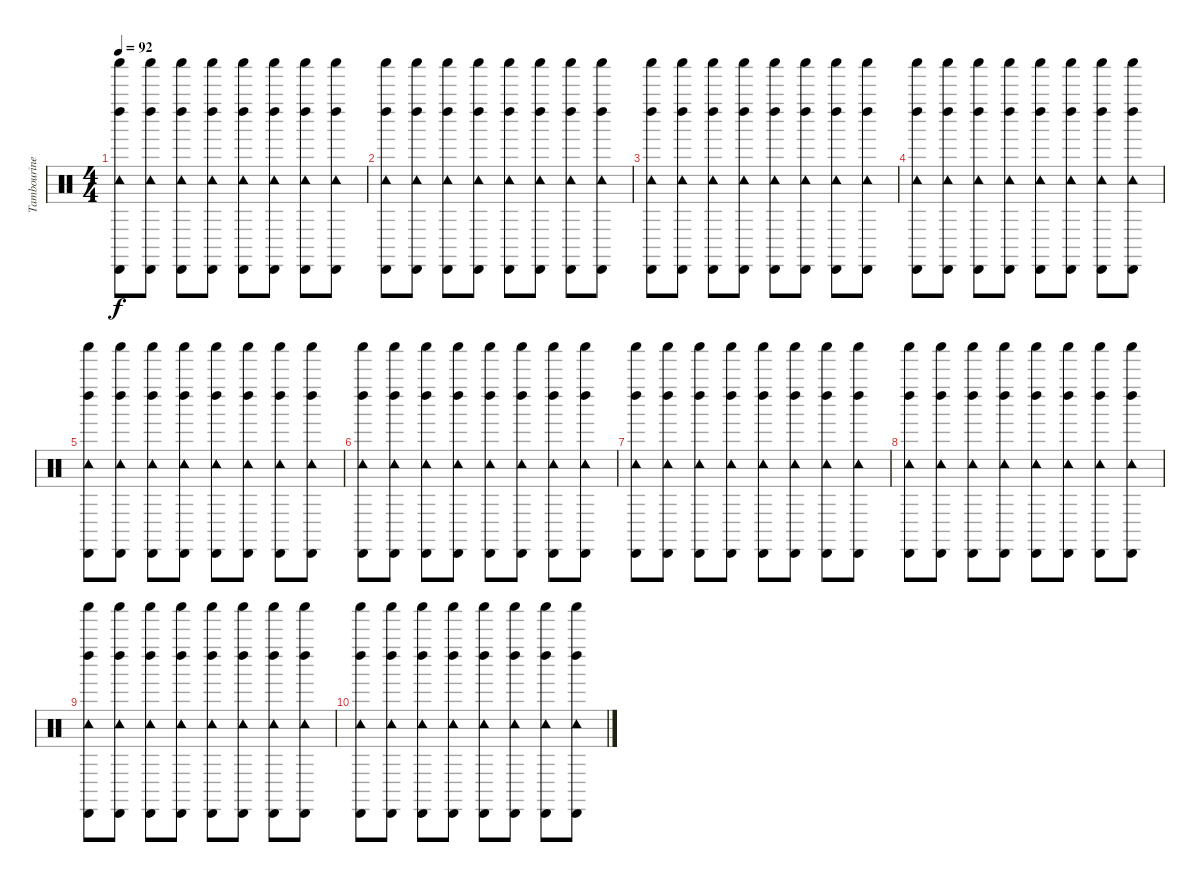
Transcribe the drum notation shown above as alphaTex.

\track ("Tambourine and Shaker" "Tambourine") {instrument percussion}
\staff {score}
\articulation defaults
\ts (4 4)
\tempo 92
\clef neutral
\ks c
("Shaker (hit)" "Left Maraca (hit)" "Cabasa (hit)" "Tambourine (hit)").8{dy f} ("Shaker (hit)" "Left Maraca (hit)" "Cabasa (hit)" "Tambourine (hit)").8 ("Shaker (hit)" "Left Maraca (hit)" "Cabasa (hit)" "Tambourine (hit)").8 ("Shaker (hit)" "Left Maraca (hit)" "Cabasa (hit)" "Tambourine (hit)").8 ("Shaker (hit)" "Left Maraca (hit)" "Cabasa (hit)" "Tambourine (hit)").8 ("Shaker (hit)" "Left Maraca (hit)" "Cabasa (hit)" "Tambourine (hit)").8 ("Shaker (hit)" "Left Maraca (hit)" "Cabasa (hit)" "Tambourine (hit)").8 ("Shaker (hit)" "Left Maraca (hit)" "Cabasa (hit)" "Tambourine (hit)").8 |
("Shaker (hit)" "Left Maraca (hit)" "Cabasa (hit)" "Tambourine (hit)").8 ("Shaker (hit)" "Left Maraca (hit)" "Cabasa (hit)" "Tambourine (hit)").8 ("Shaker (hit)" "Left Maraca (hit)" "Cabasa (hit)" "Tambourine (hit)").8 ("Shaker (hit)" "Left Maraca (hit)" "Cabasa (hit)" "Tambourine (hit)").8 ("Shaker (hit)" "Left Maraca (hit)" "Cabasa (hit)" "Tambourine (hit)").8 ("Shaker (hit)" "Left Maraca (hit)" "Cabasa (hit)" "Tambourine (hit)").8 ("Shaker (hit)" "Left Maraca (hit)" "Cabasa (hit)" "Tambourine (hit)").8 ("Shaker (hit)" "Left Maraca (hit)" "Cabasa (hit)" "Tambourine (hit)").8 |
("Shaker (hit)" "Left Maraca (hit)" "Cabasa (hit)" "Tambourine (hit)").8 ("Shaker (hit)" "Left Maraca (hit)" "Cabasa (hit)" "Tambourine (hit)").8 ("Shaker (hit)" "Left Maraca (hit)" "Cabasa (hit)" "Tambourine (hit)").8 ("Shaker (hit)" "Left Maraca (hit)" "Cabasa (hit)" "Tambourine (hit)").8 ("Shaker (hit)" "Left Maraca (hit)" "Cabasa (hit)" "Tambourine (hit)").8 ("Shaker (hit)" "Left Maraca (hit)" "Cabasa (hit)" "Tambourine (hit)").8 ("Shaker (hit)" "Left Maraca (hit)" "Cabasa (hit)" "Tambourine (hit)").8 ("Shaker (hit)" "Left Maraca (hit)" "Cabasa (hit)" "Tambourine (hit)").8 |
("Shaker (hit)" "Left Maraca (hit)" "Cabasa (hit)" "Tambourine (hit)").8 ("Shaker (hit)" "Left Maraca (hit)" "Cabasa (hit)" "Tambourine (hit)").8 ("Shaker (hit)" "Left Maraca (hit)" "Cabasa (hit)" "Tambourine (hit)").8 ("Shaker (hit)" "Left Maraca (hit)" "Cabasa (hit)" "Tambourine (hit)").8 ("Shaker (hit)" "Left Maraca (hit)" "Cabasa (hit)" "Tambourine (hit)").8 ("Shaker (hit)" "Left Maraca (hit)" "Cabasa (hit)" "Tambourine (hit)").8 ("Shaker (hit)" "Left Maraca (hit)" "Cabasa (hit)" "Tambourine (hit)").8 ("Shaker (hit)" "Left Maraca (hit)" "Cabasa (hit)" "Tambourine (hit)").8 |
("Shaker (hit)" "Left Maraca (hit)" "Cabasa (hit)" "Tambourine (hit)").8 ("Shaker (hit)" "Left Maraca (hit)" "Cabasa (hit)" "Tambourine (hit)").8 ("Shaker (hit)" "Left Maraca (hit)" "Cabasa (hit)" "Tambourine (hit)").8 ("Shaker (hit)" "Left Maraca (hit)" "Cabasa (hit)" "Tambourine (hit)").8 ("Shaker (hit)" "Left Maraca (hit)" "Cabasa (hit)" "Tambourine (hit)").8 ("Shaker (hit)" "Left Maraca (hit)" "Cabasa (hit)" "Tambourine (hit)").8 ("Shaker (hit)" "Left Maraca (hit)" "Cabasa (hit)" "Tambourine (hit)").8 ("Shaker (hit)" "Left Maraca (hit)" "Cabasa (hit)" "Tambourine (hit)").8 |
("Shaker (hit)" "Left Maraca (hit)" "Cabasa (hit)" "Tambourine (hit)").8 ("Shaker (hit)" "Left Maraca (hit)" "Cabasa (hit)" "Tambourine (hit)").8 ("Shaker (hit)" "Left Maraca (hit)" "Cabasa (hit)" "Tambourine (hit)").8 ("Shaker (hit)" "Left Maraca (hit)" "Cabasa (hit)" "Tambourine (hit)").8 ("Shaker (hit)" "Left Maraca (hit)" "Cabasa (hit)" "Tambourine (hit)").8 ("Shaker (hit)" "Left Maraca (hit)" "Cabasa (hit)" "Tambourine (hit)").8 ("Shaker (hit)" "Left Maraca (hit)" "Cabasa (hit)" "Tambourine (hit)").8 ("Shaker (hit)" "Left Maraca (hit)" "Cabasa (hit)" "Tambourine (hit)").8 |
("Shaker (hit)" "Left Maraca (hit)" "Cabasa (hit)" "Tambourine (hit)").8 ("Shaker (hit)" "Left Maraca (hit)" "Cabasa (hit)" "Tambourine (hit)").8 ("Shaker (hit)" "Left Maraca (hit)" "Cabasa (hit)" "Tambourine (hit)").8 ("Shaker (hit)" "Left Maraca (hit)" "Cabasa (hit)" "Tambourine (hit)").8 ("Shaker (hit)" "Left Maraca (hit)" "Cabasa (hit)" "Tambourine (hit)").8 ("Shaker (hit)" "Left Maraca (hit)" "Cabasa (hit)" "Tambourine (hit)").8 ("Shaker (hit)" "Left Maraca (hit)" "Cabasa (hit)" "Tambourine (hit)").8 ("Shaker (hit)" "Left Maraca (hit)" "Cabasa (hit)" "Tambourine (hit)").8 |
("Shaker (hit)" "Left Maraca (hit)" "Cabasa (hit)" "Tambourine (hit)").8 ("Shaker (hit)" "Left Maraca (hit)" "Cabasa (hit)" "Tambourine (hit)").8 ("Shaker (hit)" "Left Maraca (hit)" "Cabasa (hit)" "Tambourine (hit)").8 ("Shaker (hit)" "Left Maraca (hit)" "Cabasa (hit)" "Tambourine (hit)").8 ("Shaker (hit)" "Left Maraca (hit)" "Cabasa (hit)" "Tambourine (hit)").8 ("Shaker (hit)" "Left Maraca (hit)" "Cabasa (hit)" "Tambourine (hit)").8 ("Shaker (hit)" "Left Maraca (hit)" "Cabasa (hit)" "Tambourine (hit)").8 ("Shaker (hit)" "Left Maraca (hit)" "Cabasa (hit)" "Tambourine (hit)").8 |
("Shaker (hit)" "Left Maraca (hit)" "Cabasa (hit)" "Tambourine (hit)").8 ("Shaker (hit)" "Left Maraca (hit)" "Cabasa (hit)" "Tambourine (hit)").8 ("Shaker (hit)" "Left Maraca (hit)" "Cabasa (hit)" "Tambourine (hit)").8 ("Shaker (hit)" "Left Maraca (hit)" "Cabasa (hit)" "Tambourine (hit)").8 ("Shaker (hit)" "Left Maraca (hit)" "Cabasa (hit)" "Tambourine (hit)").8 ("Shaker (hit)" "Left Maraca (hit)" "Cabasa (hit)" "Tambourine (hit)").8 ("Shaker (hit)" "Left Maraca (hit)" "Cabasa (hit)" "Tambourine (hit)").8 ("Shaker (hit)" "Left Maraca (hit)" "Cabasa (hit)" "Tambourine (hit)").8 |
("Shaker (hit)" "Left Maraca (hit)" "Cabasa (hit)" "Tambourine (hit)").8 ("Shaker (hit)" "Left Maraca (hit)" "Cabasa (hit)" "Tambourine (hit)").8 ("Shaker (hit)" "Left Maraca (hit)" "Cabasa (hit)" "Tambourine (hit)").8 ("Shaker (hit)" "Left Maraca (hit)" "Cabasa (hit)" "Tambourine (hit)").8 ("Shaker (hit)" "Left Maraca (hit)" "Cabasa (hit)" "Tambourine (hit)").8 ("Shaker (hit)" "Left Maraca (hit)" "Cabasa (hit)" "Tambourine (hit)").8 ("Shaker (hit)" "Left Maraca (hit)" "Cabasa (hit)" "Tambourine (hit)").8 ("Shaker (hit)" "Left Maraca (hit)" "Cabasa (hit)" "Tambourine (hit)").8
